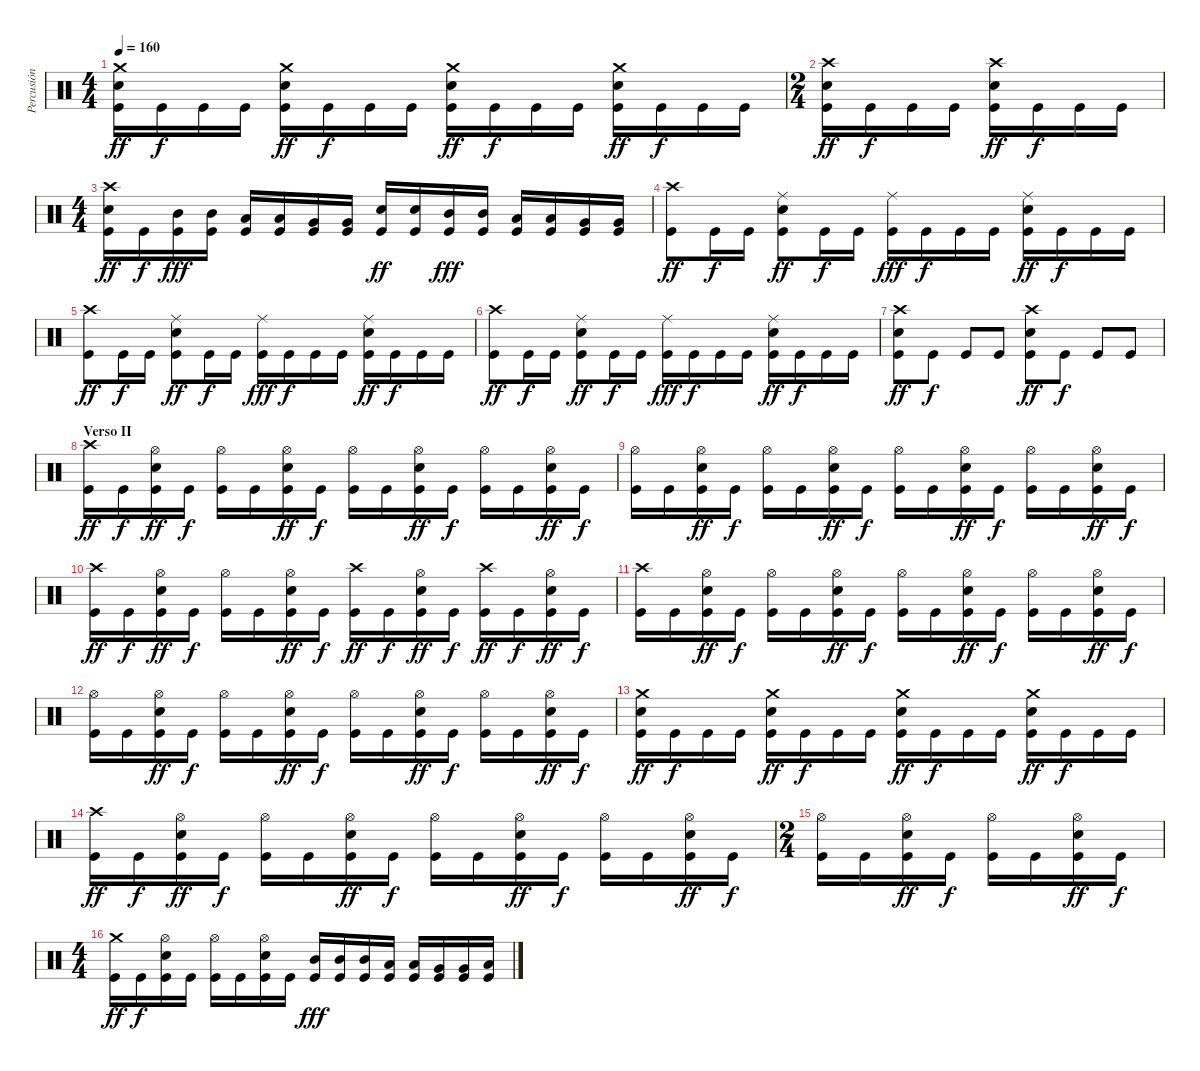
\track ("Percusión" "Percusión") {instrument percussion}
\staff {score}
\articulation defaults
\ts (4 4)
\tempo 160
\clef neutral
\ks c
("Kick (hit)" "Electric Snare (hit)" "Crash medium (hit)").16{dy ff} "Kick (hit)".16{dy f} "Kick (hit)".16 "Kick (hit)".16 ("Kick (hit)" "Electric Snare (hit)" "Crash medium (hit)").16{dy ff} "Kick (hit)".16{dy f} "Kick (hit)".16 "Kick (hit)".16 ("Kick (hit)" "Electric Snare (hit)" "Crash medium (hit)").16{dy ff} "Kick (hit)".16{dy f} "Kick (hit)".16 "Kick (hit)".16 ("Kick (hit)" "Electric Snare (hit)" "Crash medium (hit)").16{dy ff} "Kick (hit)".16{dy f} "Kick (hit)".16 "Kick (hit)".16 |
\ts (2 4)
("Kick (hit)" "Electric Snare (hit)" "Crash high (hit)").16{dy ff} "Kick (hit)".16{dy f} "Kick (hit)".16 "Kick (hit)".16 ("Kick (hit)" "Electric Snare (hit)" "Crash high (hit)").16{dy ff} "Kick (hit)".16{dy f} "Kick (hit)".16 "Kick (hit)".16 |
\ts (4 4)
("Kick (hit)" "Electric Snare (hit)" "Crash high (hit)").16{dy ff} "Kick (hit)".16{dy f} ("Kick (hit)" "Mid Tom (hit)").16{dy fff} ("Kick (hit)" "Mid Tom (hit)").16 ("Kick (hit)" "Low Tom (hit)").16 ("Kick (hit)" "Low Tom (hit)").16 ("Kick (hit)" "Very Low Tom (hit)").16 ("Kick (hit)" "Very Low Tom (hit)").16 ("Kick (hit)" "Electric Snare (hit)").16{dy ff} ("Kick (hit)" "Electric Snare (hit)").16 ("Kick (hit)" "Mid Tom (hit)").16{dy fff} ("Kick (hit)" "Mid Tom (hit)").16 ("Kick (hit)" "Low Tom (hit)").16 ("Kick (hit)" "Low Tom (hit)").16 ("Kick (hit)" "Very Low Tom (hit)").16 ("Kick (hit)" "Very Low Tom (hit)").16 |
("Kick (hit)" "Crash high (hit)").8{dy ff} "Kick (hit)".16{dy f} "Kick (hit)".16 ("Kick (hit)" "Ride (middle)" "Electric Snare (hit)").8{dy ff} "Kick (hit)".16{dy f} "Kick (hit)".16 ("Kick (hit)" "Ride (middle)").16{dy fff} "Kick (hit)".16{dy f} "Kick (hit)".16 "Kick (hit)".16 ("Kick (hit)" "Ride (middle)" "Electric Snare (hit)").16{dy ff} "Kick (hit)".16{dy f} "Kick (hit)".16 "Kick (hit)".16 |
("Kick (hit)" "Crash high (hit)").8{dy ff} "Kick (hit)".16{dy f} "Kick (hit)".16 ("Kick (hit)" "Ride (middle)" "Electric Snare (hit)").8{dy ff} "Kick (hit)".16{dy f} "Kick (hit)".16 ("Kick (hit)" "Ride (middle)").16{dy fff} "Kick (hit)".16{dy f} "Kick (hit)".16 "Kick (hit)".16 ("Kick (hit)" "Ride (middle)" "Electric Snare (hit)").16{dy ff} "Kick (hit)".16{dy f} "Kick (hit)".16 "Kick (hit)".16 |
("Kick (hit)" "Crash high (hit)").8{dy ff} "Kick (hit)".16{dy f} "Kick (hit)".16 ("Kick (hit)" "Ride (middle)" "Electric Snare (hit)").8{dy ff} "Kick (hit)".16{dy f} "Kick (hit)".16 ("Kick (hit)" "Ride (middle)").16{dy fff} "Kick (hit)".16{dy f} "Kick (hit)".16 "Kick (hit)".16 ("Kick (hit)" "Ride (middle)" "Electric Snare (hit)").16{dy ff} "Kick (hit)".16{dy f} "Kick (hit)".16 "Kick (hit)".16 |
("Kick (hit)" "Electric Snare (hit)" "Crash high (hit)").8{dy ff} "Kick (hit)".8{dy f} "Kick (hit)".8 "Kick (hit)".8 ("Kick (hit)" "Electric Snare (hit)" "Crash high (hit)").8{dy ff} "Kick (hit)".8{dy f} "Kick (hit)".8 "Kick (hit)".8 |
\section ("" "Verso II")
("Kick (hit)" "Crash high (hit)").16{dy ff} "Kick (hit)".16{dy f} ("Kick (hit)" "Electric Snare (hit)" "Hi-Hat (open)").16{dy ff} "Kick (hit)".16{dy f} ("Kick (hit)" "Hi-Hat (open)").16 "Kick (hit)".16 ("Kick (hit)" "Electric Snare (hit)" "Hi-Hat (open)").16{dy ff} "Kick (hit)".16{dy f} ("Kick (hit)" "Hi-Hat (open)").16 "Kick (hit)".16 ("Kick (hit)" "Electric Snare (hit)" "Hi-Hat (open)").16{dy ff} "Kick (hit)".16{dy f} ("Kick (hit)" "Hi-Hat (open)").16 "Kick (hit)".16 ("Kick (hit)" "Electric Snare (hit)" "Hi-Hat (open)").16{dy ff} "Kick (hit)".16{dy f} |
("Kick (hit)" "Hi-Hat (open)").16 "Kick (hit)".16 ("Kick (hit)" "Electric Snare (hit)" "Hi-Hat (open)").16{dy ff} "Kick (hit)".16{dy f} ("Kick (hit)" "Hi-Hat (open)").16 "Kick (hit)".16 ("Kick (hit)" "Electric Snare (hit)" "Hi-Hat (open)").16{dy ff} "Kick (hit)".16{dy f} ("Kick (hit)" "Hi-Hat (open)").16 "Kick (hit)".16 ("Kick (hit)" "Electric Snare (hit)" "Hi-Hat (open)").16{dy ff} "Kick (hit)".16{dy f} ("Kick (hit)" "Hi-Hat (open)").16 "Kick (hit)".16 ("Kick (hit)" "Electric Snare (hit)" "Hi-Hat (open)").16{dy ff} "Kick (hit)".16{dy f} |
("Kick (hit)" "Crash high (hit)").16{dy ff} "Kick (hit)".16{dy f} ("Kick (hit)" "Electric Snare (hit)" "Hi-Hat (open)").16{dy ff} "Kick (hit)".16{dy f} ("Kick (hit)" "Hi-Hat (open)").16 "Kick (hit)".16 ("Kick (hit)" "Electric Snare (hit)" "Hi-Hat (open)").16{dy ff} "Kick (hit)".16{dy f} ("Kick (hit)" "Crash high (hit)").16{dy ff} "Kick (hit)".16{dy f} ("Kick (hit)" "Electric Snare (hit)" "Hi-Hat (open)").16{dy ff} "Kick (hit)".16{dy f} ("Kick (hit)" "Crash high (hit)").16{dy ff} "Kick (hit)".16{dy f} ("Kick (hit)" "Electric Snare (hit)" "Hi-Hat (open)").16{dy ff} "Kick (hit)".16{dy f} |
("Kick (hit)" "Crash high (hit)").16 "Kick (hit)".16 ("Kick (hit)" "Electric Snare (hit)" "Hi-Hat (open)").16{dy ff} "Kick (hit)".16{dy f} ("Kick (hit)" "Hi-Hat (open)").16 "Kick (hit)".16 ("Kick (hit)" "Electric Snare (hit)" "Hi-Hat (open)").16{dy ff} "Kick (hit)".16{dy f} ("Kick (hit)" "Hi-Hat (open)").16 "Kick (hit)".16 ("Kick (hit)" "Electric Snare (hit)" "Hi-Hat (open)").16{dy ff} "Kick (hit)".16{dy f} ("Kick (hit)" "Hi-Hat (open)").16 "Kick (hit)".16 ("Kick (hit)" "Electric Snare (hit)" "Hi-Hat (open)").16{dy ff} "Kick (hit)".16{dy f} |
("Kick (hit)" "Hi-Hat (open)").16 "Kick (hit)".16 ("Kick (hit)" "Electric Snare (hit)" "Hi-Hat (open)").16{dy ff} "Kick (hit)".16{dy f} ("Kick (hit)" "Hi-Hat (open)").16 "Kick (hit)".16 ("Kick (hit)" "Electric Snare (hit)" "Hi-Hat (open)").16{dy ff} "Kick (hit)".16{dy f} ("Kick (hit)" "Hi-Hat (open)").16 "Kick (hit)".16 ("Kick (hit)" "Electric Snare (hit)" "Hi-Hat (open)").16{dy ff} "Kick (hit)".16{dy f} ("Kick (hit)" "Hi-Hat (open)").16 "Kick (hit)".16 ("Kick (hit)" "Electric Snare (hit)" "Hi-Hat (open)").16{dy ff} "Kick (hit)".16{dy f} |
("Kick (hit)" "Electric Snare (hit)" "Crash medium (hit)").16{dy ff} "Kick (hit)".16{dy f} "Kick (hit)".16 "Kick (hit)".16 ("Kick (hit)" "Electric Snare (hit)" "Crash medium (hit)").16{dy ff} "Kick (hit)".16{dy f} "Kick (hit)".16 "Kick (hit)".16 ("Kick (hit)" "Electric Snare (hit)" "Crash medium (hit)").16{dy ff} "Kick (hit)".16{dy f} "Kick (hit)".16 "Kick (hit)".16 ("Kick (hit)" "Electric Snare (hit)" "Crash medium (hit)").16{dy ff} "Kick (hit)".16{dy f} "Kick (hit)".16 "Kick (hit)".16 |
("Kick (hit)" "Crash high (hit)").16{dy ff} "Kick (hit)".16{dy f} ("Kick (hit)" "Electric Snare (hit)" "Hi-Hat (open)").16{dy ff} "Kick (hit)".16{dy f} ("Kick (hit)" "Hi-Hat (open)").16 "Kick (hit)".16 ("Kick (hit)" "Electric Snare (hit)" "Hi-Hat (open)").16{dy ff} "Kick (hit)".16{dy f} ("Kick (hit)" "Hi-Hat (open)").16 "Kick (hit)".16 ("Kick (hit)" "Electric Snare (hit)" "Hi-Hat (open)").16{dy ff} "Kick (hit)".16{dy f} ("Kick (hit)" "Hi-Hat (open)").16 "Kick (hit)".16 ("Kick (hit)" "Electric Snare (hit)" "Hi-Hat (open)").16{dy ff} "Kick (hit)".16{dy f} |
\ts (2 4)
("Kick (hit)" "Hi-Hat (open)").16 "Kick (hit)".16 ("Kick (hit)" "Electric Snare (hit)" "Hi-Hat (open)").16{dy ff} "Kick (hit)".16{dy f} ("Kick (hit)" "Hi-Hat (open)").16 "Kick (hit)".16 ("Kick (hit)" "Electric Snare (hit)" "Hi-Hat (open)").16{dy ff} "Kick (hit)".16{dy f} |
\ts (4 4)
("Kick (hit)" "Crash medium (hit)").16{dy ff} "Kick (hit)".16{dy f} ("Kick (hit)" "Electric Snare (hit)" "Hi-Hat (open)").16 "Kick (hit)".16 ("Kick (hit)" "Hi-Hat (open)").16 "Kick (hit)".16 ("Kick (hit)" "Electric Snare (hit)" "Hi-Hat (open)").16 "Kick (hit)".16 ("Kick (hit)" "Mid Tom (hit)").16{dy fff} ("Kick (hit)" "Mid Tom (hit)").16 ("Kick (hit)" "Mid Tom (hit)").16 ("Kick (hit)" "Low Tom (hit)").16 ("Kick (hit)" "Low Tom (hit)").16 ("Kick (hit)" "Very Low Tom (hit)").16 ("Kick (hit)" "Very Low Tom (hit)").16 ("Kick (hit)" "Low Floor Tom (hit)").16
